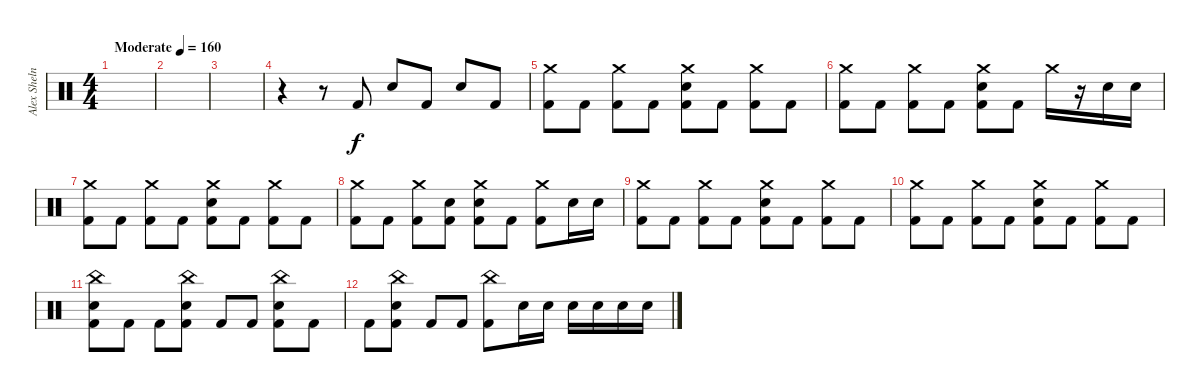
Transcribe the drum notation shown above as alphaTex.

\track ("Alex Shelnut" "Alex Sheln") {instrument percussion}
\staff {score}
\articulation defaults
\ts (4 4)
\tempo (160 "Moderate")
\clef neutral
\ks c
|
|
|
r.4 r.8 "Kick (hit) 2".8 "Electric Snare (hit)".8 "Kick (hit) 2".8 "Electric Snare (hit)".8 "Kick (hit) 2".8 |
("Crash medium (hit)" "Kick (hit) 2").8 "Kick (hit) 2".8 ("Crash medium (hit)" "Kick (hit) 2").8 "Kick (hit) 2".8 ("Crash medium (hit)" "Electric Snare (hit)" "Kick (hit) 2").8 "Kick (hit) 2".8 ("Crash medium (hit)" "Kick (hit) 2").8 "Kick (hit) 2".8 |
("Crash medium (hit)" "Kick (hit) 2").8 "Kick (hit) 2".8 ("Crash medium (hit)" "Kick (hit) 2").8 "Kick (hit) 2".8 ("Crash medium (hit)" "Electric Snare (hit)" "Kick (hit) 2").8 "Kick (hit) 2".8 "Crash medium (hit)".16 r.16 "Electric Snare (hit)".16 "Electric Snare (hit)".16 |
("Crash medium (hit)" "Kick (hit) 2").8 "Kick (hit) 2".8 ("Crash medium (hit)" "Kick (hit) 2").8 "Kick (hit) 2".8 ("Crash medium (hit)" "Electric Snare (hit)" "Kick (hit) 2").8 "Kick (hit) 2".8 ("Crash medium (hit)" "Kick (hit) 2").8 "Kick (hit) 2".8 |
("Crash medium (hit)" "Kick (hit) 2").8 "Kick (hit) 2".8 ("Crash medium (hit)" "Kick (hit) 2").8 ("Electric Snare (hit)" "Kick (hit) 2").8 ("Crash medium (hit)" "Electric Snare (hit)" "Kick (hit) 2").8 "Kick (hit) 2".8 ("Crash medium (hit)" "Kick (hit) 2").8 "Electric Snare (hit)".16 "Electric Snare (hit)".16 |
("Crash medium (hit)" "Kick (hit) 2").8 "Kick (hit) 2".8 ("Crash medium (hit)" "Kick (hit) 2").8 "Kick (hit) 2".8 ("Crash medium (hit)" "Electric Snare (hit)" "Kick (hit) 2").8 "Kick (hit) 2".8 ("Crash medium (hit)" "Kick (hit) 2").8 "Kick (hit) 2".8 |
("Crash medium (hit)" "Kick (hit) 2").8 "Kick (hit) 2".8 ("Crash medium (hit)" "Kick (hit) 2").8 "Kick (hit) 2".8 ("Crash medium (hit)" "Electric Snare (hit)" "Kick (hit) 2").8 "Kick (hit) 2".8 ("Crash medium (hit)" "Kick (hit) 2").8 "Kick (hit) 2".8 |
("China (hit)" "Electric Snare (hit)" "Kick (hit) 2").8 "Kick (hit) 2".8 "Kick (hit) 2".8 ("China (hit)" "Electric Snare (hit)" "Kick (hit) 2").8 "Kick (hit) 2".8 "Kick (hit) 2".8 ("China (hit)" "Electric Snare (hit)" "Kick (hit) 2").8 "Kick (hit) 2".8 |
"Kick (hit) 2".8 ("China (hit)" "Electric Snare (hit)" "Kick (hit) 2").8 "Kick (hit) 2".8 "Kick (hit) 2".8 ("China (hit)" "Kick (hit) 2").8 "Electric Snare (hit)".16 "Electric Snare (hit)".16 "Electric Snare (hit)".16 "Electric Snare (hit)".16 "Electric Snare (hit)".16 "Electric Snare (hit)".16
